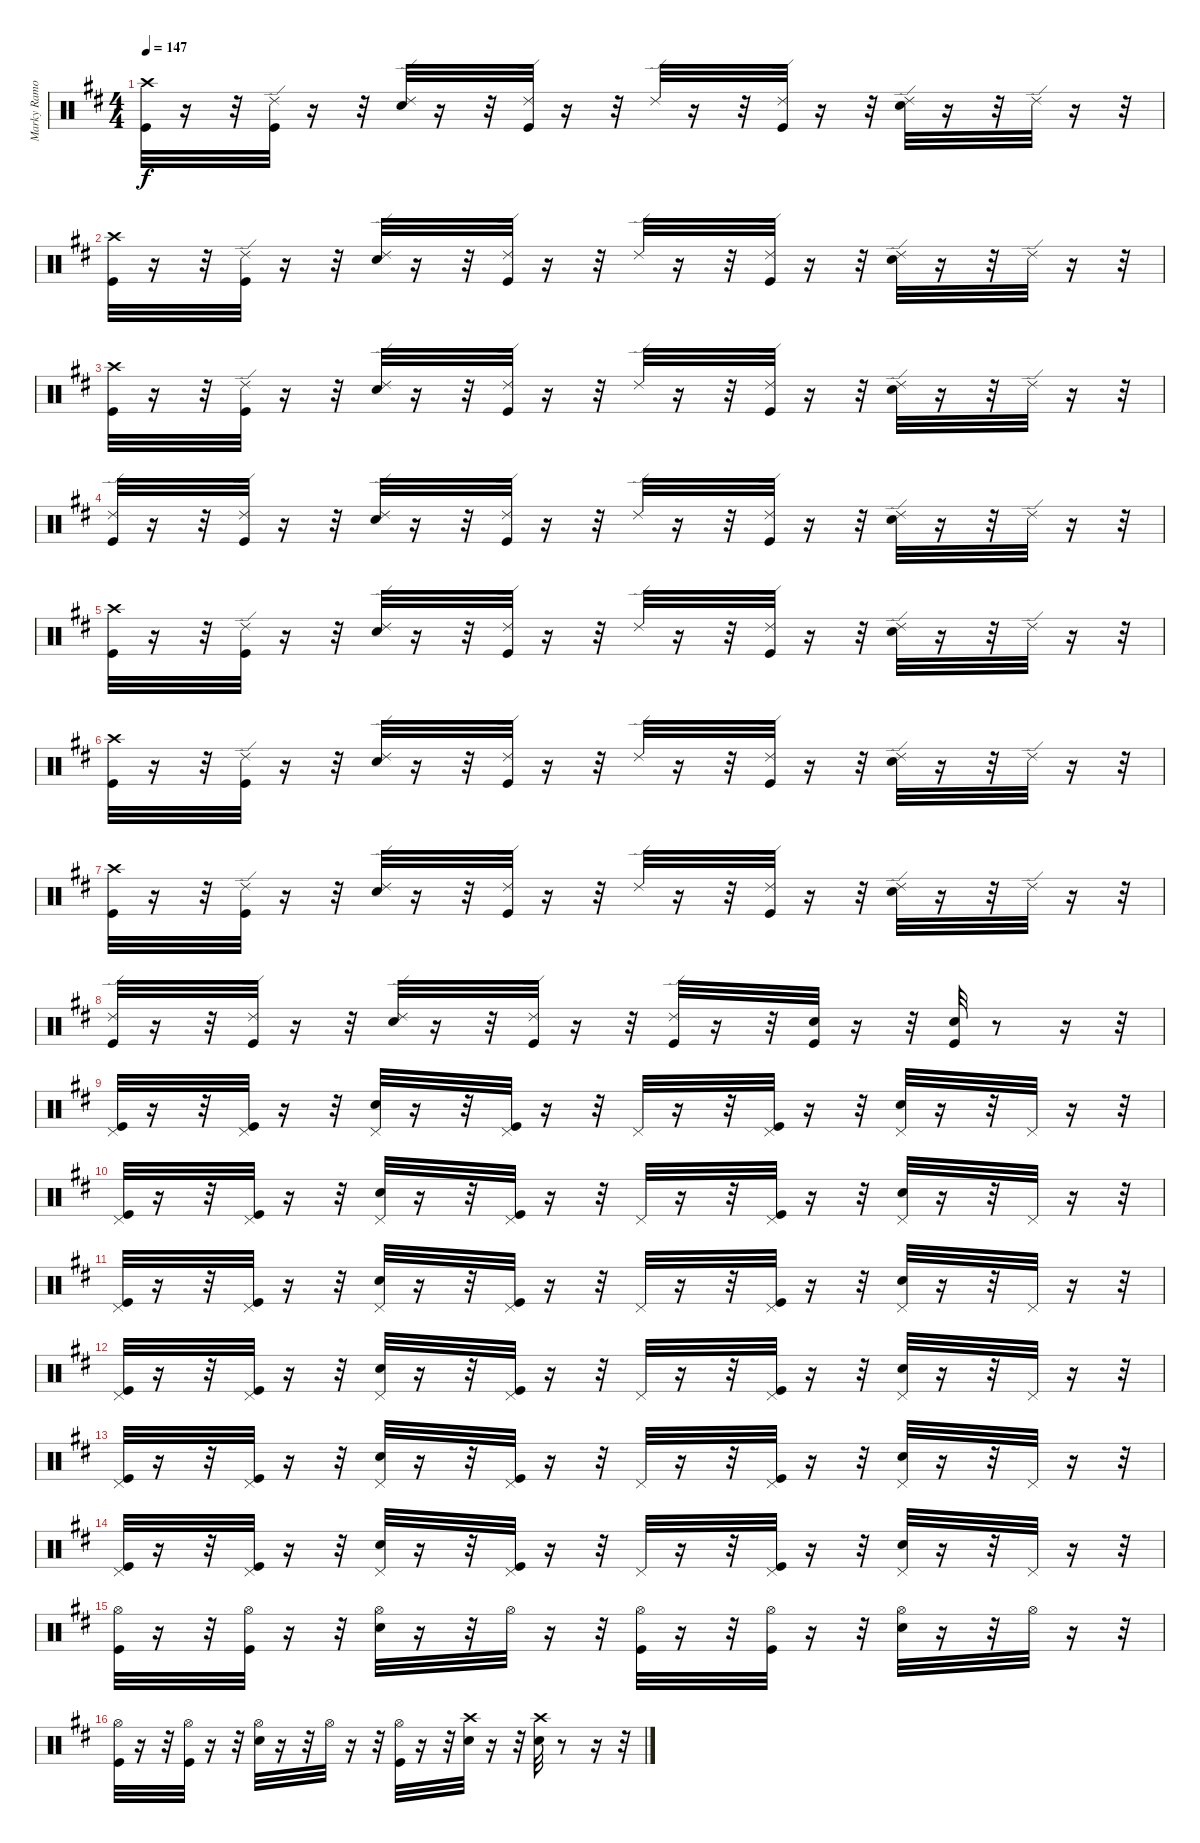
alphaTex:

\track ("Marky Ramone" "Marky Ramo") {instrument percussion}
\staff {score}
\articulation defaults
\ts (4 4)
\tempo 147
\clef neutral
\ks d
("Crash high (hit)" "Kick (hit)").32{dy f} r.16 r.32 ("Ride (edge) 2" "Kick (hit)").32 r.16 r.32 ("Ride (edge) 2" "Electric Snare (hit)").32 r.16 r.32 ("Ride (edge) 2" "Kick (hit)").32 r.16 r.32 "Ride (edge) 2".32 r.16 r.32 ("Ride (edge) 2" "Kick (hit)").32 r.16 r.32 ("Ride (edge) 2" "Electric Snare (hit)").32 r.16 r.32 "Ride (edge) 2".32 r.16 r.32 |
("Crash high (hit)" "Kick (hit)").32 r.16 r.32 ("Ride (edge) 2" "Kick (hit)").32 r.16 r.32 ("Electric Snare (hit)" "Ride (edge) 2").32 r.16 r.32 ("Kick (hit)" "Ride (edge) 2").32 r.16 r.32 "Ride (edge) 2".32 r.16 r.32 ("Kick (hit)" "Ride (edge) 2").32 r.16 r.32 ("Ride (edge) 2" "Electric Snare (hit)").32 r.16 r.32 "Ride (edge) 2".32 r.16 r.32 |
("Crash high (hit)" "Kick (hit)").32 r.16 r.32 ("Ride (edge) 2" "Kick (hit)").32 r.16 r.32 ("Ride (edge) 2" "Electric Snare (hit)").32 r.16 r.32 ("Ride (edge) 2" "Kick (hit)").32 r.16 r.32 "Ride (edge) 2".32 r.16 r.32 ("Ride (edge) 2" "Kick (hit)").32 r.16 r.32 ("Ride (edge) 2" "Electric Snare (hit)").32 r.16 r.32 "Ride (edge) 2".32 r.16 r.32 |
("Ride (edge) 2" "Kick (hit)").32 r.16 r.32 ("Ride (edge) 2" "Kick (hit)").32 r.16 r.32 ("Ride (edge) 2" "Electric Snare (hit)").32 r.16 r.32 ("Ride (edge) 2" "Kick (hit)").32 r.16 r.32 "Ride (edge) 2".32 r.16 r.32 ("Ride (edge) 2" "Kick (hit)").32 r.16 r.32 ("Ride (edge) 2" "Electric Snare (hit)").32 r.16 r.32 "Ride (edge) 2".32 r.16 r.32 |
("Kick (hit)" "Crash high (hit)").32 r.16 r.32 ("Ride (edge) 2" "Kick (hit)").32 r.16 r.32 ("Ride (edge) 2" "Electric Snare (hit)").32 r.16 r.32 ("Ride (edge) 2" "Kick (hit)").32 r.16 r.32 "Ride (edge) 2".32 r.16 r.32 ("Ride (edge) 2" "Kick (hit)").32 r.16 r.32 ("Ride (edge) 2" "Electric Snare (hit)").32 r.16 r.32 "Ride (edge) 2".32 r.16 r.32 |
("Crash high (hit)" "Kick (hit)").32 r.16 r.32 ("Ride (edge) 2" "Kick (hit)").32 r.16 r.32 ("Ride (edge) 2" "Electric Snare (hit)").32 r.16 r.32 ("Ride (edge) 2" "Kick (hit)").32 r.16 r.32 "Ride (edge) 2".32 r.16 r.32 ("Ride (edge) 2" "Kick (hit)").32 r.16 r.32 ("Ride (edge) 2" "Electric Snare (hit)").32 r.16 r.32 "Ride (edge) 2".32 r.16 r.32 |
("Kick (hit)" "Crash high (hit)").32 r.16 r.32 ("Ride (edge) 2" "Kick (hit)").32 r.16 r.32 ("Ride (edge) 2" "Electric Snare (hit)").32 r.16 r.32 ("Ride (edge) 2" "Kick (hit)").32 r.16 r.32 "Ride (edge) 2".32 r.16 r.32 ("Ride (edge) 2" "Kick (hit)").32 r.16 r.32 ("Ride (edge) 2" "Electric Snare (hit)").32 r.16 r.32 "Ride (edge) 2".32 r.16 r.32 |
("Ride (edge) 2" "Kick (hit)").32 r.16 r.32 ("Ride (edge) 2" "Kick (hit)").32 r.16 r.32 ("Ride (edge) 2" "Electric Snare (hit)").32 r.16 r.32 ("Ride (edge) 2" "Kick (hit)").32 r.16 r.32 ("Ride (edge) 2" "Kick (hit)").32 r.16 r.32 ("Kick (hit)" "Electric Snare (hit)").32 r.16 r.32 ("Kick (hit)" "Electric Snare (hit)").32 r.8 r.16 r.32 |
("Pedal Hi-Hat (hit)" "Kick (hit)").32 r.16 r.32 ("Pedal Hi-Hat (hit)" "Kick (hit)").32 r.16 r.32 ("Pedal Hi-Hat (hit)" "Electric Snare (hit)").32 r.16 r.32 ("Pedal Hi-Hat (hit)" "Kick (hit)").32 r.16 r.32 "Pedal Hi-Hat (hit)".32 r.16 r.32 ("Pedal Hi-Hat (hit)" "Kick (hit)").32 r.16 r.32 ("Pedal Hi-Hat (hit)" "Electric Snare (hit)").32 r.16 r.32 "Pedal Hi-Hat (hit)".32 r.16 r.32 |
("Pedal Hi-Hat (hit)" "Kick (hit)").32 r.16 r.32 ("Pedal Hi-Hat (hit)" "Kick (hit)").32 r.16 r.32 ("Pedal Hi-Hat (hit)" "Electric Snare (hit)").32 r.16 r.32 ("Pedal Hi-Hat (hit)" "Kick (hit)").32 r.16 r.32 "Pedal Hi-Hat (hit)".32 r.16 r.32 ("Pedal Hi-Hat (hit)" "Kick (hit)").32 r.16 r.32 ("Pedal Hi-Hat (hit)" "Electric Snare (hit)").32 r.16 r.32 "Pedal Hi-Hat (hit)".32 r.16 r.32 |
("Pedal Hi-Hat (hit)" "Kick (hit)").32 r.16 r.32 ("Pedal Hi-Hat (hit)" "Kick (hit)").32 r.16 r.32 ("Pedal Hi-Hat (hit)" "Electric Snare (hit)").32 r.16 r.32 ("Pedal Hi-Hat (hit)" "Kick (hit)").32 r.16 r.32 "Pedal Hi-Hat (hit)".32 r.16 r.32 ("Pedal Hi-Hat (hit)" "Kick (hit)").32 r.16 r.32 ("Pedal Hi-Hat (hit)" "Electric Snare (hit)").32 r.16 r.32 "Pedal Hi-Hat (hit)".32 r.16 r.32 |
("Pedal Hi-Hat (hit)" "Kick (hit)").32 r.16 r.32 ("Pedal Hi-Hat (hit)" "Kick (hit)").32 r.16 r.32 ("Pedal Hi-Hat (hit)" "Electric Snare (hit)").32 r.16 r.32 ("Pedal Hi-Hat (hit)" "Kick (hit)").32 r.16 r.32 "Pedal Hi-Hat (hit)".32 r.16 r.32 ("Pedal Hi-Hat (hit)" "Kick (hit)").32 r.16 r.32 ("Pedal Hi-Hat (hit)" "Electric Snare (hit)").32 r.16 r.32 "Pedal Hi-Hat (hit)".32 r.16 r.32 |
("Pedal Hi-Hat (hit)" "Kick (hit)").32 r.16 r.32 ("Pedal Hi-Hat (hit)" "Kick (hit)").32 r.16 r.32 ("Pedal Hi-Hat (hit)" "Electric Snare (hit)").32 r.16 r.32 ("Pedal Hi-Hat (hit)" "Kick (hit)").32 r.16 r.32 "Pedal Hi-Hat (hit)".32 r.16 r.32 ("Pedal Hi-Hat (hit)" "Kick (hit)").32 r.16 r.32 ("Pedal Hi-Hat (hit)" "Electric Snare (hit)").32 r.16 r.32 "Pedal Hi-Hat (hit)".32 r.16 r.32 |
("Pedal Hi-Hat (hit)" "Kick (hit)").32 r.16 r.32 ("Pedal Hi-Hat (hit)" "Kick (hit)").32 r.16 r.32 ("Pedal Hi-Hat (hit)" "Electric Snare (hit)").32 r.16 r.32 ("Pedal Hi-Hat (hit)" "Kick (hit)").32 r.16 r.32 "Pedal Hi-Hat (hit)".32 r.16 r.32 ("Pedal Hi-Hat (hit)" "Kick (hit)").32 r.16 r.32 ("Pedal Hi-Hat (hit)" "Electric Snare (hit)").32 r.16 r.32 "Pedal Hi-Hat (hit)".32 r.16 r.32 |
("Hi-Hat (open)" "Kick (hit)").32 r.16 r.32 ("Hi-Hat (open)" "Kick (hit)").32 r.16 r.32 ("Hi-Hat (open)" "Electric Snare (hit)").32 r.16 r.32 "Hi-Hat (open)".32 r.16 r.32 ("Hi-Hat (open)" "Kick (hit)").32 r.16 r.32 ("Hi-Hat (open)" "Kick (hit)").32 r.16 r.32 ("Hi-Hat (open)" "Electric Snare (hit)").32 r.16 r.32 "Hi-Hat (open)".32 r.16 r.32 |
("Hi-Hat (open)" "Kick (hit)").32 r.16 r.32 ("Hi-Hat (open)" "Kick (hit)").32 r.16 r.32 ("Hi-Hat (open)" "Electric Snare (hit)").32 r.16 r.32 "Hi-Hat (open)".32 r.16 r.32 ("Hi-Hat (open)" "Kick (hit)").32 r.16 r.32 ("Crash high (hit)" "Electric Snare (hit)").32 r.16 r.32 ("Crash high (hit)" "Electric Snare (hit)").32 r.8 r.16 r.32
